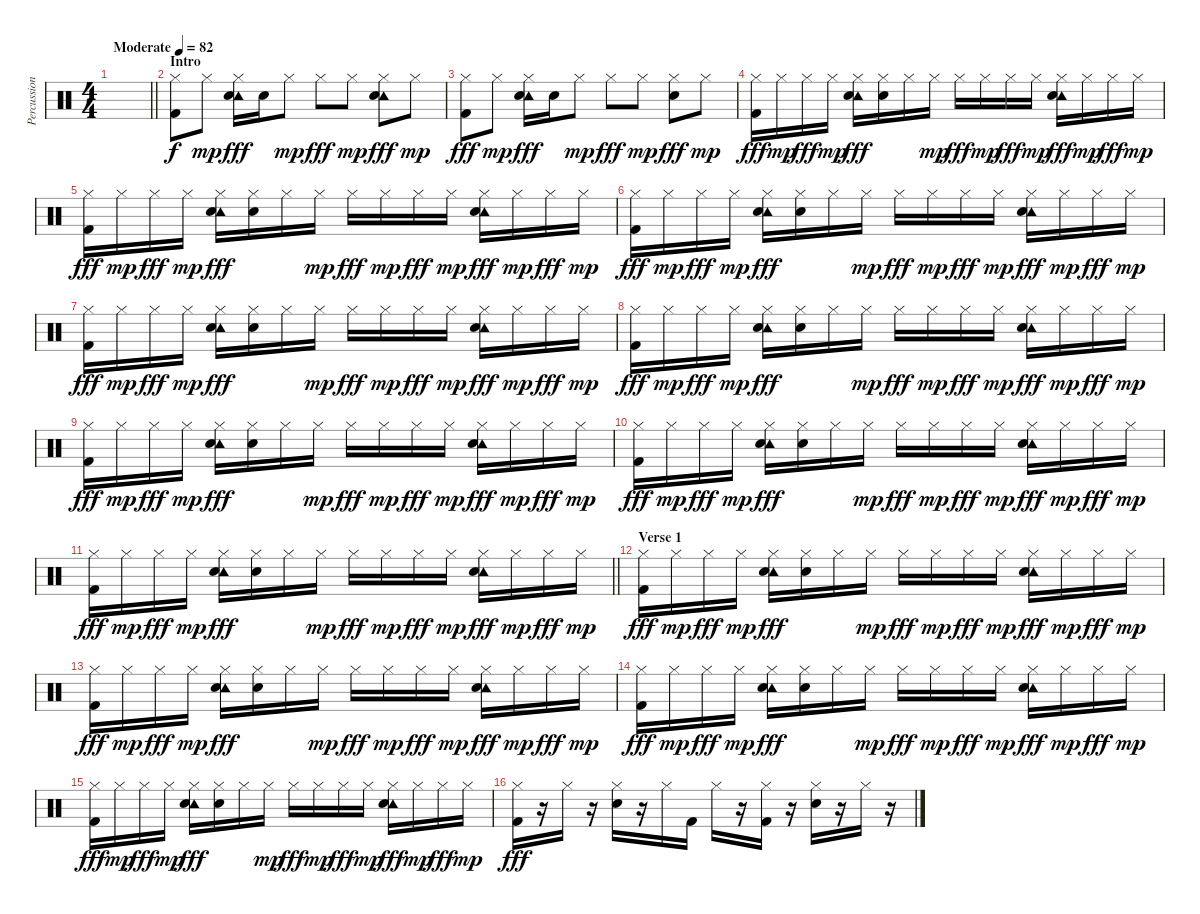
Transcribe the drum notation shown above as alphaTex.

\track ("Percussion" "Percussion") {instrument percussion}
\staff {score}
\articulation defaults
\ts (4 4)
\tempo (82 "Moderate")
\clef neutral
\barLineRight lightlight
\ks c
|
\section ("" "Intro")
("Hi-Hat (closed)" "Kick (hit) 2").8 "Hi-Hat (closed)".8{dy mp} ("Tambourine (hit)" "Hi-Hat (closed)" "Snare (hit) 2").16{dy fff} "Snare (hit) 2".16 "Hi-Hat (closed)".8{dy mp} "Hi-Hat (closed)".8{dy fff} "Hi-Hat (closed)".8{dy mp} ("Tambourine (hit)" "Hi-Hat (closed)" "Snare (hit) 2").8{dy fff} "Hi-Hat (closed)".8{dy mp} |
("Hi-Hat (closed)" "Kick (hit) 2").8{dy fff} "Hi-Hat (closed)".8{dy mp} ("Tambourine (hit)" "Hi-Hat (closed)" "Snare (hit) 2").16{dy fff} "Snare (hit) 2".16 "Hi-Hat (closed)".8{dy mp} "Hi-Hat (closed)".8{dy fff} "Hi-Hat (closed)".8{dy mp} ("Hi-Hat (closed)" "Snare (hit) 2").8{dy fff} "Hi-Hat (closed)".8{dy mp} |
("Hi-Hat (closed)" "Kick (hit) 2").16{dy fff} "Hi-Hat (closed)".16{dy mp} "Hi-Hat (closed)".16{dy fff} "Hi-Hat (closed)".16{dy mp} ("Tambourine (hit)" "Hi-Hat (closed)" "Snare (hit) 2").16{dy fff} ("Hi-Hat (closed)" "Snare (hit) 2").16 "Hi-Hat (closed)".16 "Hi-Hat (closed)".16{dy mp} "Hi-Hat (closed)".16{dy fff} "Hi-Hat (closed)".16{dy mp} "Hi-Hat (closed)".16{dy fff} "Hi-Hat (closed)".16{dy mp} ("Tambourine (hit)" "Hi-Hat (closed)" "Snare (hit) 2").16{dy fff} "Hi-Hat (closed)".16{dy mp} "Hi-Hat (closed)".16{dy fff} "Hi-Hat (closed)".16{dy mp} |
("Hi-Hat (closed)" "Kick (hit) 2").16{dy fff} "Hi-Hat (closed)".16{dy mp} "Hi-Hat (closed)".16{dy fff} "Hi-Hat (closed)".16{dy mp} ("Tambourine (hit)" "Hi-Hat (closed)" "Snare (hit) 2").16{dy fff} ("Hi-Hat (closed)" "Snare (hit) 2").16 "Hi-Hat (closed)".16 "Hi-Hat (closed)".16{dy mp} "Hi-Hat (closed)".16{dy fff} "Hi-Hat (closed)".16{dy mp} "Hi-Hat (closed)".16{dy fff} "Hi-Hat (closed)".16{dy mp} ("Tambourine (hit)" "Hi-Hat (closed)" "Snare (hit) 2").16{dy fff} "Hi-Hat (closed)".16{dy mp} "Hi-Hat (closed)".16{dy fff} "Hi-Hat (closed)".16{dy mp} |
("Hi-Hat (closed)" "Kick (hit) 2").16{dy fff} "Hi-Hat (closed)".16{dy mp} "Hi-Hat (closed)".16{dy fff} "Hi-Hat (closed)".16{dy mp} ("Tambourine (hit)" "Hi-Hat (closed)" "Snare (hit) 2").16{dy fff} ("Hi-Hat (closed)" "Snare (hit) 2").16 "Hi-Hat (closed)".16 "Hi-Hat (closed)".16{dy mp} "Hi-Hat (closed)".16{dy fff} "Hi-Hat (closed)".16{dy mp} "Hi-Hat (closed)".16{dy fff} "Hi-Hat (closed)".16{dy mp} ("Tambourine (hit)" "Hi-Hat (closed)" "Snare (hit) 2").16{dy fff} "Hi-Hat (closed)".16{dy mp} "Hi-Hat (closed)".16{dy fff} "Hi-Hat (closed)".16{dy mp} |
("Hi-Hat (closed)" "Kick (hit) 2").16{dy fff} "Hi-Hat (closed)".16{dy mp} "Hi-Hat (closed)".16{dy fff} "Hi-Hat (closed)".16{dy mp} ("Tambourine (hit)" "Hi-Hat (closed)" "Snare (hit) 2").16{dy fff} ("Hi-Hat (closed)" "Snare (hit) 2").16 "Hi-Hat (closed)".16 "Hi-Hat (closed)".16{dy mp} "Hi-Hat (closed)".16{dy fff} "Hi-Hat (closed)".16{dy mp} "Hi-Hat (closed)".16{dy fff} "Hi-Hat (closed)".16{dy mp} ("Tambourine (hit)" "Hi-Hat (closed)" "Snare (hit) 2").16{dy fff} "Hi-Hat (closed)".16{dy mp} "Hi-Hat (closed)".16{dy fff} "Hi-Hat (closed)".16{dy mp} |
("Hi-Hat (closed)" "Kick (hit) 2").16{dy fff} "Hi-Hat (closed)".16{dy mp} "Hi-Hat (closed)".16{dy fff} "Hi-Hat (closed)".16{dy mp} ("Tambourine (hit)" "Hi-Hat (closed)" "Snare (hit) 2").16{dy fff} ("Hi-Hat (closed)" "Snare (hit) 2").16 "Hi-Hat (closed)".16 "Hi-Hat (closed)".16{dy mp} "Hi-Hat (closed)".16{dy fff} "Hi-Hat (closed)".16{dy mp} "Hi-Hat (closed)".16{dy fff} "Hi-Hat (closed)".16{dy mp} ("Tambourine (hit)" "Hi-Hat (closed)" "Snare (hit) 2").16{dy fff} "Hi-Hat (closed)".16{dy mp} "Hi-Hat (closed)".16{dy fff} "Hi-Hat (closed)".16{dy mp} |
("Hi-Hat (closed)" "Kick (hit) 2").16{dy fff} "Hi-Hat (closed)".16{dy mp} "Hi-Hat (closed)".16{dy fff} "Hi-Hat (closed)".16{dy mp} ("Tambourine (hit)" "Hi-Hat (closed)" "Snare (hit) 2").16{dy fff} ("Hi-Hat (closed)" "Snare (hit) 2").16 "Hi-Hat (closed)".16 "Hi-Hat (closed)".16{dy mp} "Hi-Hat (closed)".16{dy fff} "Hi-Hat (closed)".16{dy mp} "Hi-Hat (closed)".16{dy fff} "Hi-Hat (closed)".16{dy mp} ("Tambourine (hit)" "Hi-Hat (closed)" "Snare (hit) 2").16{dy fff} "Hi-Hat (closed)".16{dy mp} "Hi-Hat (closed)".16{dy fff} "Hi-Hat (closed)".16{dy mp} |
("Hi-Hat (closed)" "Kick (hit) 2").16{dy fff} "Hi-Hat (closed)".16{dy mp} "Hi-Hat (closed)".16{dy fff} "Hi-Hat (closed)".16{dy mp} ("Tambourine (hit)" "Hi-Hat (closed)" "Snare (hit) 2").16{dy fff} ("Hi-Hat (closed)" "Snare (hit) 2").16 "Hi-Hat (closed)".16 "Hi-Hat (closed)".16{dy mp} "Hi-Hat (closed)".16{dy fff} "Hi-Hat (closed)".16{dy mp} "Hi-Hat (closed)".16{dy fff} "Hi-Hat (closed)".16{dy mp} ("Tambourine (hit)" "Hi-Hat (closed)" "Snare (hit) 2").16{dy fff} "Hi-Hat (closed)".16{dy mp} "Hi-Hat (closed)".16{dy fff} "Hi-Hat (closed)".16{dy mp} |
\barLineRight lightlight
("Hi-Hat (closed)" "Kick (hit) 2").16{dy fff} "Hi-Hat (closed)".16{dy mp} "Hi-Hat (closed)".16{dy fff} "Hi-Hat (closed)".16{dy mp} ("Tambourine (hit)" "Hi-Hat (closed)" "Snare (hit) 2").16{dy fff} ("Hi-Hat (closed)" "Snare (hit) 2").16 "Hi-Hat (closed)".16 "Hi-Hat (closed)".16{dy mp} "Hi-Hat (closed)".16{dy fff} "Hi-Hat (closed)".16{dy mp} "Hi-Hat (closed)".16{dy fff} "Hi-Hat (closed)".16{dy mp} ("Tambourine (hit)" "Hi-Hat (closed)" "Snare (hit) 2").16{dy fff} "Hi-Hat (closed)".16{dy mp} "Hi-Hat (closed)".16{dy fff} "Hi-Hat (closed)".16{dy mp} |
\section ("" "Verse 1")
("Hi-Hat (closed)" "Kick (hit) 2").16{dy fff} "Hi-Hat (closed)".16{dy mp} "Hi-Hat (closed)".16{dy fff} "Hi-Hat (closed)".16{dy mp} ("Tambourine (hit)" "Hi-Hat (closed)" "Snare (hit) 2").16{dy fff} ("Hi-Hat (closed)" "Snare (hit) 2").16 "Hi-Hat (closed)".16 "Hi-Hat (closed)".16{dy mp} "Hi-Hat (closed)".16{dy fff} "Hi-Hat (closed)".16{dy mp} "Hi-Hat (closed)".16{dy fff} "Hi-Hat (closed)".16{dy mp} ("Tambourine (hit)" "Hi-Hat (closed)" "Snare (hit) 2").16{dy fff} "Hi-Hat (closed)".16{dy mp} "Hi-Hat (closed)".16{dy fff} "Hi-Hat (closed)".16{dy mp} |
("Hi-Hat (closed)" "Kick (hit) 2").16{dy fff} "Hi-Hat (closed)".16{dy mp} "Hi-Hat (closed)".16{dy fff} "Hi-Hat (closed)".16{dy mp} ("Tambourine (hit)" "Hi-Hat (closed)" "Snare (hit) 2").16{dy fff} ("Hi-Hat (closed)" "Snare (hit) 2").16 "Hi-Hat (closed)".16 "Hi-Hat (closed)".16{dy mp} "Hi-Hat (closed)".16{dy fff} "Hi-Hat (closed)".16{dy mp} "Hi-Hat (closed)".16{dy fff} "Hi-Hat (closed)".16{dy mp} ("Tambourine (hit)" "Hi-Hat (closed)" "Snare (hit) 2").16{dy fff} "Hi-Hat (closed)".16{dy mp} "Hi-Hat (closed)".16{dy fff} "Hi-Hat (closed)".16{dy mp} |
("Hi-Hat (closed)" "Kick (hit) 2").16{dy fff} "Hi-Hat (closed)".16{dy mp} "Hi-Hat (closed)".16{dy fff} "Hi-Hat (closed)".16{dy mp} ("Tambourine (hit)" "Hi-Hat (closed)" "Snare (hit) 2").16{dy fff} ("Hi-Hat (closed)" "Snare (hit) 2").16 "Hi-Hat (closed)".16 "Hi-Hat (closed)".16{dy mp} "Hi-Hat (closed)".16{dy fff} "Hi-Hat (closed)".16{dy mp} "Hi-Hat (closed)".16{dy fff} "Hi-Hat (closed)".16{dy mp} ("Tambourine (hit)" "Hi-Hat (closed)" "Snare (hit) 2").16{dy fff} "Hi-Hat (closed)".16{dy mp} "Hi-Hat (closed)".16{dy fff} "Hi-Hat (closed)".16{dy mp} |
("Hi-Hat (closed)" "Kick (hit) 2").16{dy fff} "Hi-Hat (closed)".16{dy mp} "Hi-Hat (closed)".16{dy fff} "Hi-Hat (closed)".16{dy mp} ("Tambourine (hit)" "Hi-Hat (closed)" "Snare (hit) 2").16{dy fff} ("Hi-Hat (closed)" "Snare (hit) 2").16 "Hi-Hat (closed)".16 "Hi-Hat (closed)".16{dy mp} "Hi-Hat (closed)".16{dy fff} "Hi-Hat (closed)".16{dy mp} "Hi-Hat (closed)".16{dy fff} "Hi-Hat (closed)".16{dy mp} ("Tambourine (hit)" "Hi-Hat (closed)" "Snare (hit) 2").16{dy fff} "Hi-Hat (closed)".16{dy mp} "Hi-Hat (closed)".16{dy fff} "Hi-Hat (closed)".16{dy mp} |
("Hi-Hat (closed)" "Kick (hit) 2").16{dy fff} r.16 "Hi-Hat (closed)".16 r.16 ("Hi-Hat (closed)" "Snare (hit) 2").16 r.16 "Hi-Hat (closed)".16 "Kick (hit) 2".16 "Hi-Hat (closed)".16 r.16 ("Hi-Hat (closed)" "Kick (hit) 2").16 r.16 ("Hi-Hat (closed)" "Snare (hit) 2").16 r.16 "Hi-Hat (closed)".16 r.16
